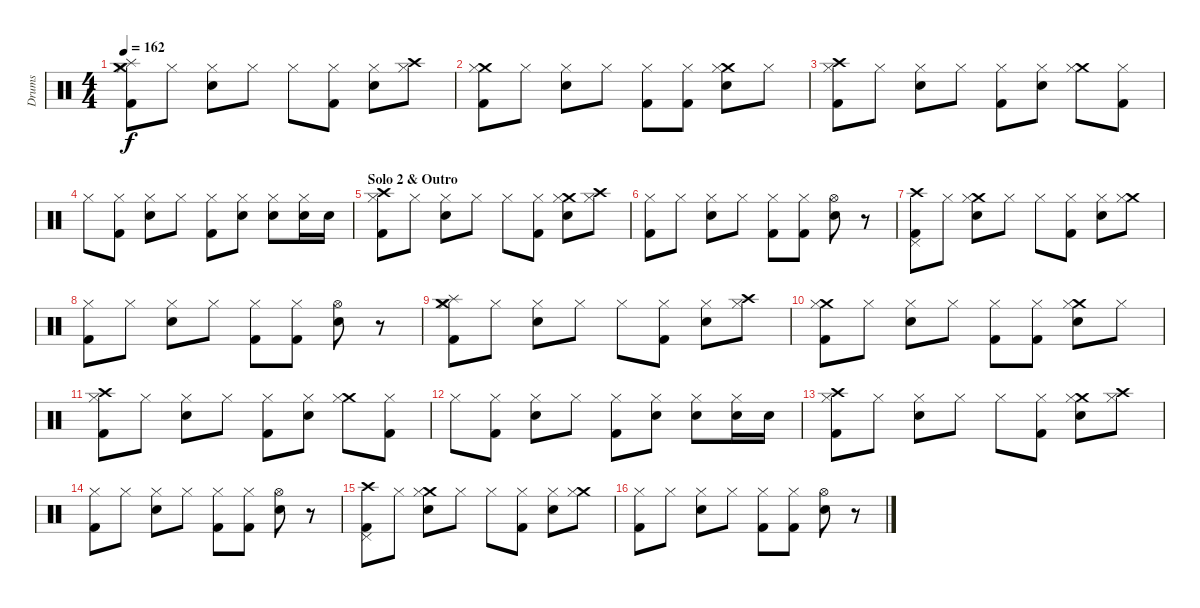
\track ("Drums" "Drums") {instrument percussion}
\staff {score}
\articulation defaults
\ts (4 4)
\tempo 162
\clef neutral
\ks c
("Crash medium (hit)" "Hi-Hat (closed)" "Splash (hit)" "Kick (hit) 2").8{dy f} "Hi-Hat (closed)".8 ("Hi-Hat (closed)" "Electric Snare (hit)").8 "Hi-Hat (closed)".8 "Hi-Hat (closed)".8 ("Hi-Hat (closed)" "Kick (hit) 2").8 ("Hi-Hat (closed)" "Electric Snare (hit)").8 ("Crash high (hit)" "Hi-Hat (closed)").8 |
("Crash medium (hit)" "Hi-Hat (closed)" "Kick (hit) 2").8 "Hi-Hat (closed)".8 ("Hi-Hat (closed)" "Electric Snare (hit)").8 "Hi-Hat (closed)".8 ("Hi-Hat (closed)" "Kick (hit) 2").8 ("Hi-Hat (closed)" "Kick (hit) 2").8 ("Crash medium (hit)" "Hi-Hat (closed)" "Electric Snare (hit)").8 "Hi-Hat (closed)".8 |
("Crash high (hit)" "Hi-Hat (closed)" "Kick (hit) 2").8 "Hi-Hat (closed)".8 ("Hi-Hat (closed)" "Electric Snare (hit)").8 "Hi-Hat (closed)".8 ("Hi-Hat (closed)" "Kick (hit) 2").8 ("Hi-Hat (closed)" "Electric Snare (hit)").8 ("Crash medium (hit)" "Hi-Hat (closed)").8 ("Hi-Hat (closed)" "Kick (hit) 2").8 |
"Hi-Hat (closed)".8 ("Hi-Hat (closed)" "Kick (hit) 2").8 ("Hi-Hat (closed)" "Electric Snare (hit)").8 "Hi-Hat (closed)".8 ("Hi-Hat (closed)" "Kick (hit) 2").8 ("Hi-Hat (closed)" "Electric Snare (hit)").8 ("Hi-Hat (closed)" "Electric Snare (hit)").8 ("Hi-Hat (closed)" "Electric Snare (hit)").16 "Electric Snare (hit)".16 |
\section ("" "Solo 2 & Outro")
("Crash high (hit)" "Hi-Hat (closed)" "Kick (hit) 2").8 "Hi-Hat (closed)".8 ("Hi-Hat (closed)" "Electric Snare (hit)").8 "Hi-Hat (closed)".8 "Hi-Hat (closed)".8 ("Hi-Hat (closed)" "Kick (hit) 2").8 ("Crash medium (hit)" "Hi-Hat (closed)" "Electric Snare (hit)").8 ("Crash high (hit)" "Hi-Hat (closed)").8 |
("Hi-Hat (closed)" "Kick (hit) 2").8 "Hi-Hat (closed)".8 ("Hi-Hat (closed)" "Electric Snare (hit)").8 "Hi-Hat (closed)".8 ("Hi-Hat (closed)" "Kick (hit) 2").8 ("Hi-Hat (closed)" "Kick (hit) 2").8 ("Hi-Hat (open)" "Electric Snare (hit)").8 r.8 |
("Crash high (hit)" "Pedal Hi-Hat (hit)" "Kick (hit) 2").8 "Hi-Hat (closed)".8 ("Crash medium (hit)" "Hi-Hat (closed)" "Electric Snare (hit)").8 "Hi-Hat (closed)".8 "Hi-Hat (closed)".8 ("Hi-Hat (closed)" "Kick (hit) 2").8 ("Hi-Hat (closed)" "Electric Snare (hit)").8 ("Crash medium (hit)" "Hi-Hat (closed)").8 |
("Hi-Hat (closed)" "Kick (hit) 2").8 "Hi-Hat (closed)".8 ("Hi-Hat (closed)" "Electric Snare (hit)").8 "Hi-Hat (closed)".8 ("Hi-Hat (closed)" "Kick (hit) 2").8 ("Hi-Hat (closed)" "Kick (hit) 2").8 ("Hi-Hat (open)" "Electric Snare (hit)").8 r.8 |
("Crash medium (hit)" "Hi-Hat (closed)" "Splash (hit)" "Kick (hit) 2").8 "Hi-Hat (closed)".8 ("Hi-Hat (closed)" "Electric Snare (hit)").8 "Hi-Hat (closed)".8 "Hi-Hat (closed)".8 ("Hi-Hat (closed)" "Kick (hit) 2").8 ("Hi-Hat (closed)" "Electric Snare (hit)").8 ("Crash high (hit)" "Hi-Hat (closed)").8 |
("Crash medium (hit)" "Hi-Hat (closed)" "Kick (hit) 2").8 "Hi-Hat (closed)".8 ("Hi-Hat (closed)" "Electric Snare (hit)").8 "Hi-Hat (closed)".8 ("Hi-Hat (closed)" "Kick (hit) 2").8 ("Hi-Hat (closed)" "Kick (hit) 2").8 ("Crash medium (hit)" "Hi-Hat (closed)" "Electric Snare (hit)").8 "Hi-Hat (closed)".8 |
("Crash high (hit)" "Hi-Hat (closed)" "Kick (hit) 2").8 "Hi-Hat (closed)".8 ("Hi-Hat (closed)" "Electric Snare (hit)").8 "Hi-Hat (closed)".8 ("Hi-Hat (closed)" "Kick (hit) 2").8 ("Hi-Hat (closed)" "Electric Snare (hit)").8 ("Crash medium (hit)" "Hi-Hat (closed)").8 ("Hi-Hat (closed)" "Kick (hit) 2").8 |
"Hi-Hat (closed)".8 ("Hi-Hat (closed)" "Kick (hit) 2").8 ("Hi-Hat (closed)" "Electric Snare (hit)").8 "Hi-Hat (closed)".8 ("Hi-Hat (closed)" "Kick (hit) 2").8 ("Hi-Hat (closed)" "Electric Snare (hit)").8 ("Hi-Hat (closed)" "Electric Snare (hit)").8 ("Hi-Hat (closed)" "Electric Snare (hit)").16 "Electric Snare (hit)".16 |
("Crash high (hit)" "Hi-Hat (closed)" "Kick (hit) 2").8 "Hi-Hat (closed)".8 ("Hi-Hat (closed)" "Electric Snare (hit)").8 "Hi-Hat (closed)".8 "Hi-Hat (closed)".8 ("Hi-Hat (closed)" "Kick (hit) 2").8 ("Crash medium (hit)" "Hi-Hat (closed)" "Electric Snare (hit)").8 ("Crash high (hit)" "Hi-Hat (closed)").8 |
("Hi-Hat (closed)" "Kick (hit) 2").8 "Hi-Hat (closed)".8 ("Hi-Hat (closed)" "Electric Snare (hit)").8 "Hi-Hat (closed)".8 ("Hi-Hat (closed)" "Kick (hit) 2").8 ("Hi-Hat (closed)" "Kick (hit) 2").8 ("Hi-Hat (open)" "Electric Snare (hit)").8 r.8 |
("Crash high (hit)" "Pedal Hi-Hat (hit)" "Kick (hit) 2").8 "Hi-Hat (closed)".8 ("Crash medium (hit)" "Hi-Hat (closed)" "Electric Snare (hit)").8 "Hi-Hat (closed)".8 "Hi-Hat (closed)".8 ("Hi-Hat (closed)" "Kick (hit) 2").8 ("Hi-Hat (closed)" "Electric Snare (hit)").8 ("Crash medium (hit)" "Hi-Hat (closed)").8 |
("Hi-Hat (closed)" "Kick (hit) 2").8 "Hi-Hat (closed)".8 ("Hi-Hat (closed)" "Electric Snare (hit)").8 "Hi-Hat (closed)".8 ("Hi-Hat (closed)" "Kick (hit) 2").8 ("Hi-Hat (closed)" "Kick (hit) 2").8 ("Hi-Hat (open)" "Electric Snare (hit)").8 r.8
